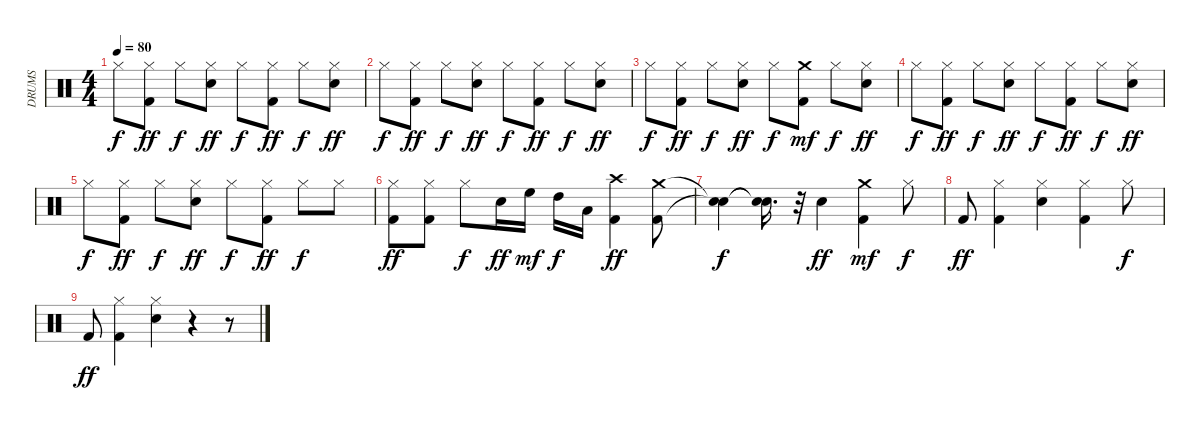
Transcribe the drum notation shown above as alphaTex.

\track ("DRUMS                               " "DRUMS     ") {instrument percussion}
\staff {score}
\articulation defaults
\ts (4 4)
\tempo 80
\clef neutral
\ks c "Hi-Hat (closed)".8{dy f}
("Kick (hit) 2" "Hi-Hat (closed)").8{dy ff} "Hi-Hat (closed)".8{dy f} ("Snare (hit) 2" "Hi-Hat (closed)").8{dy ff} "Hi-Hat (closed)".8{dy f} ("Kick (hit) 2" "Hi-Hat (closed)").8{dy ff} "Hi-Hat (closed)".8{dy f} ("Snare (hit) 2" "Hi-Hat (closed)").8{dy ff} |
"Hi-Hat (closed)".8{dy f} ("Kick (hit) 2" "Hi-Hat (closed)").8{dy ff} "Hi-Hat (closed)".8{dy f} ("Snare (hit) 2" "Hi-Hat (closed)").8{dy ff} "Hi-Hat (closed)".8{dy f} ("Kick (hit) 2" "Hi-Hat (closed)").8{dy ff} "Hi-Hat (closed)".8{dy f} ("Snare (hit) 2" "Hi-Hat (closed)").8{dy ff} |
"Hi-Hat (closed)".8{dy f} ("Kick (hit) 2" "Hi-Hat (closed)").8{dy ff} "Hi-Hat (closed)".8{dy f} ("Snare (hit) 2" "Hi-Hat (closed)").8{dy ff} "Hi-Hat (closed)".8{dy f} ("Kick (hit) 2" "Crash medium (hit)").8{dy mf} "Hi-Hat (closed)".8{dy f} ("Snare (hit) 2" "Hi-Hat (closed)").8{dy ff} |
"Hi-Hat (closed)".8{dy f} ("Kick (hit) 2" "Hi-Hat (closed)").8{dy ff} "Hi-Hat (closed)".8{dy f} ("Snare (hit) 2" "Hi-Hat (closed)").8{dy ff} "Hi-Hat (closed)".8{dy f} ("Kick (hit) 2" "Hi-Hat (closed)").8{dy ff} "Hi-Hat (closed)".8{dy f} ("Snare (hit) 2" "Hi-Hat (closed)").8{dy ff} |
"Hi-Hat (closed)".8{dy f} ("Kick (hit) 2" "Hi-Hat (closed)").8{dy ff} "Hi-Hat (closed)".8{dy f} ("Snare (hit) 2" "Hi-Hat (closed)").8{dy ff} "Hi-Hat (closed)".8{dy f} ("Kick (hit) 2" "Hi-Hat (closed)").8{dy ff} "Hi-Hat (closed)".8{dy f} "Hi-Hat (closed)".8 |
("Kick (hit) 2" "Hi-Hat (closed)").8{dy ff} ("Kick (hit) 2" "Hi-Hat (closed)").8 "Hi-Hat (closed)".8{dy f} "Snare (hit) 2".16{dy ff} "High Floor Tom (hit)".16{dy mf} "High Tom (hit)".16{dy f} "Low Tom (hit)".16 ("Kick (hit) 2" "Crash high (hit)").4{dy ff} ("Kick (hit) 2" "Crash medium (hit)").8 |
("Snare (hit)"{t} "Snare (hit)"{t}).4{dy f} ("Snare (hit)"{t} "Snare (hit)"{t}).16{d} r.32 "Snare (hit) 2".4{dy ff} ("Kick (hit) 2" "Crash medium (hit)").4{dy mf} "Hi-Hat (closed)".8{dy f} |
"Kick (hit) 2".8{dy ff} ("Kick (hit) 2" "Hi-Hat (closed)").4 ("Snare (hit) 2" "Hi-Hat (closed)").4 ("Kick (hit) 2" "Hi-Hat (closed)").4 "Hi-Hat (closed)".8{dy f} |
"Kick (hit) 2".8{dy ff} ("Kick (hit) 2" "Hi-Hat (closed)").4 ("Snare (hit) 2" "Hi-Hat (closed)").4 r.4 r.8
